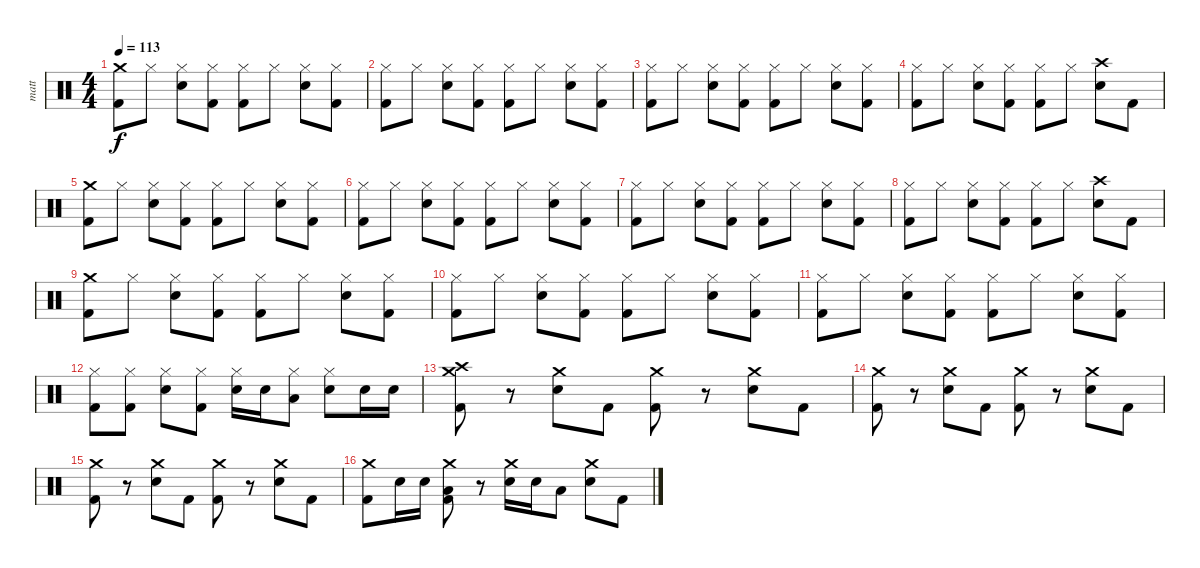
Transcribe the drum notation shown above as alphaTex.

\track ("matt" "matt") {instrument percussion}
\staff {score}
\articulation defaults
\ts (4 4)
\tempo 113
\clef neutral
\ks c
("Crash medium (hit)" "Kick (hit) 2").8{dy f} "Hi-Hat (closed)".8 ("Hi-Hat (closed)" "Electric Snare (hit)").8 ("Hi-Hat (closed)" "Kick (hit) 2").8 ("Hi-Hat (closed)" "Kick (hit) 2").8 "Hi-Hat (closed)".8 ("Hi-Hat (closed)" "Electric Snare (hit)").8 ("Hi-Hat (closed)" "Kick (hit) 2").8 |
("Hi-Hat (closed)" "Kick (hit) 2").8 "Hi-Hat (closed)".8 ("Hi-Hat (closed)" "Electric Snare (hit)").8 ("Hi-Hat (closed)" "Kick (hit) 2").8 ("Hi-Hat (closed)" "Kick (hit) 2").8 "Hi-Hat (closed)".8 ("Hi-Hat (closed)" "Electric Snare (hit)").8 ("Hi-Hat (closed)" "Kick (hit) 2").8 |
("Hi-Hat (closed)" "Kick (hit) 2").8 "Hi-Hat (closed)".8 ("Hi-Hat (closed)" "Electric Snare (hit)").8 ("Hi-Hat (closed)" "Kick (hit) 2").8 ("Hi-Hat (closed)" "Kick (hit) 2").8 "Hi-Hat (closed)".8 ("Hi-Hat (closed)" "Electric Snare (hit)").8 ("Hi-Hat (closed)" "Kick (hit) 2").8 |
("Hi-Hat (closed)" "Kick (hit) 2").8 "Hi-Hat (closed)".8 ("Hi-Hat (closed)" "Electric Snare (hit)").8 ("Hi-Hat (closed)" "Kick (hit) 2").8 ("Hi-Hat (closed)" "Kick (hit) 2").8 "Hi-Hat (closed)".8 ("Crash high (hit)" "Electric Snare (hit)").8 "Kick (hit) 2".8 |
("Crash medium (hit)" "Kick (hit) 2").8 "Hi-Hat (closed)".8 ("Hi-Hat (closed)" "Electric Snare (hit)").8 ("Hi-Hat (closed)" "Kick (hit) 2").8 ("Hi-Hat (closed)" "Kick (hit) 2").8 "Hi-Hat (closed)".8 ("Hi-Hat (closed)" "Electric Snare (hit)").8 ("Hi-Hat (closed)" "Kick (hit) 2").8 |
("Hi-Hat (closed)" "Kick (hit) 2").8 "Hi-Hat (closed)".8 ("Hi-Hat (closed)" "Electric Snare (hit)").8 ("Hi-Hat (closed)" "Kick (hit) 2").8 ("Hi-Hat (closed)" "Kick (hit) 2").8 "Hi-Hat (closed)".8 ("Hi-Hat (closed)" "Electric Snare (hit)").8 ("Hi-Hat (closed)" "Kick (hit) 2").8 |
("Hi-Hat (closed)" "Kick (hit) 2").8 "Hi-Hat (closed)".8 ("Hi-Hat (closed)" "Electric Snare (hit)").8 ("Hi-Hat (closed)" "Kick (hit) 2").8 ("Hi-Hat (closed)" "Kick (hit) 2").8 "Hi-Hat (closed)".8 ("Hi-Hat (closed)" "Electric Snare (hit)").8 ("Hi-Hat (closed)" "Kick (hit) 2").8 |
("Hi-Hat (closed)" "Kick (hit) 2").8 "Hi-Hat (closed)".8 ("Hi-Hat (closed)" "Electric Snare (hit)").8 ("Hi-Hat (closed)" "Kick (hit) 2").8 ("Hi-Hat (closed)" "Kick (hit) 2").8 "Hi-Hat (closed)".8 ("Crash high (hit)" "Electric Snare (hit)").8 "Kick (hit) 2".8 |
("Crash medium (hit)" "Kick (hit) 2").8 "Hi-Hat (closed)".8 ("Hi-Hat (closed)" "Electric Snare (hit)").8 ("Hi-Hat (closed)" "Kick (hit) 2").8 ("Hi-Hat (closed)" "Kick (hit) 2").8 "Hi-Hat (closed)".8 ("Hi-Hat (closed)" "Electric Snare (hit)").8 ("Hi-Hat (closed)" "Kick (hit) 2").8 |
("Hi-Hat (closed)" "Kick (hit) 2").8 "Hi-Hat (closed)".8 ("Hi-Hat (closed)" "Electric Snare (hit)").8 ("Hi-Hat (closed)" "Kick (hit) 2").8 ("Hi-Hat (closed)" "Kick (hit) 2").8 "Hi-Hat (closed)".8 ("Hi-Hat (closed)" "Electric Snare (hit)").8 ("Hi-Hat (closed)" "Kick (hit) 2").8 |
("Hi-Hat (closed)" "Kick (hit) 2").8 "Hi-Hat (closed)".8 ("Hi-Hat (closed)" "Electric Snare (hit)").8 ("Hi-Hat (closed)" "Kick (hit) 2").8 ("Hi-Hat (closed)" "Kick (hit) 2").8 "Hi-Hat (closed)".8 ("Hi-Hat (closed)" "Electric Snare (hit)").8 ("Hi-Hat (closed)" "Kick (hit) 2").8 |
("Hi-Hat (closed)" "Kick (hit) 2").8 ("Hi-Hat (closed)" "Kick (hit) 2").8 ("Hi-Hat (closed)" "Electric Snare (hit)").8 ("Hi-Hat (closed)" "Kick (hit) 2").8 ("Hi-Hat (closed)" "Electric Snare (hit)").16 "Electric Snare (hit)".16 ("Hi-Hat (closed)" "Low Tom (hit)").8 ("Hi-Hat (closed)" "Electric Snare (hit)").8 "Electric Snare (hit)".16 "Electric Snare (hit)".16 |
("Crash medium (hit)" "Crash high (hit)" "Kick (hit) 2").8 r.8 ("Crash medium (hit)" "Electric Snare (hit)").8 "Kick (hit) 2".8 ("Crash medium (hit)" "Kick (hit) 2").8 r.8 ("Crash medium (hit)" "Electric Snare (hit)").8 "Kick (hit) 2".8 |
("Crash medium (hit)" "Kick (hit) 2").8 r.8 ("Crash medium (hit)" "Electric Snare (hit)").8 "Kick (hit) 2".8 ("Crash medium (hit)" "Kick (hit) 2").8 r.8 ("Crash medium (hit)" "Electric Snare (hit)").8 "Kick (hit) 2".8 |
("Crash medium (hit)" "Kick (hit) 2").8 r.8 ("Crash medium (hit)" "Electric Snare (hit)").8 "Kick (hit) 2".8 ("Crash medium (hit)" "Kick (hit) 2").8 r.8 ("Crash medium (hit)" "Electric Snare (hit)").8 "Kick (hit) 2".8 |
("Crash medium (hit)" "Kick (hit) 2").8 "Electric Snare (hit)".16 "Electric Snare (hit)".16 ("Crash medium (hit)" "Low Tom (hit)" "Kick (hit) 2").8 r.8 ("Crash medium (hit)" "Electric Snare (hit)").16 "Electric Snare (hit)".16 "Low Tom (hit)".8 ("Crash medium (hit)" "Electric Snare (hit)").8 "Kick (hit) 2".8
